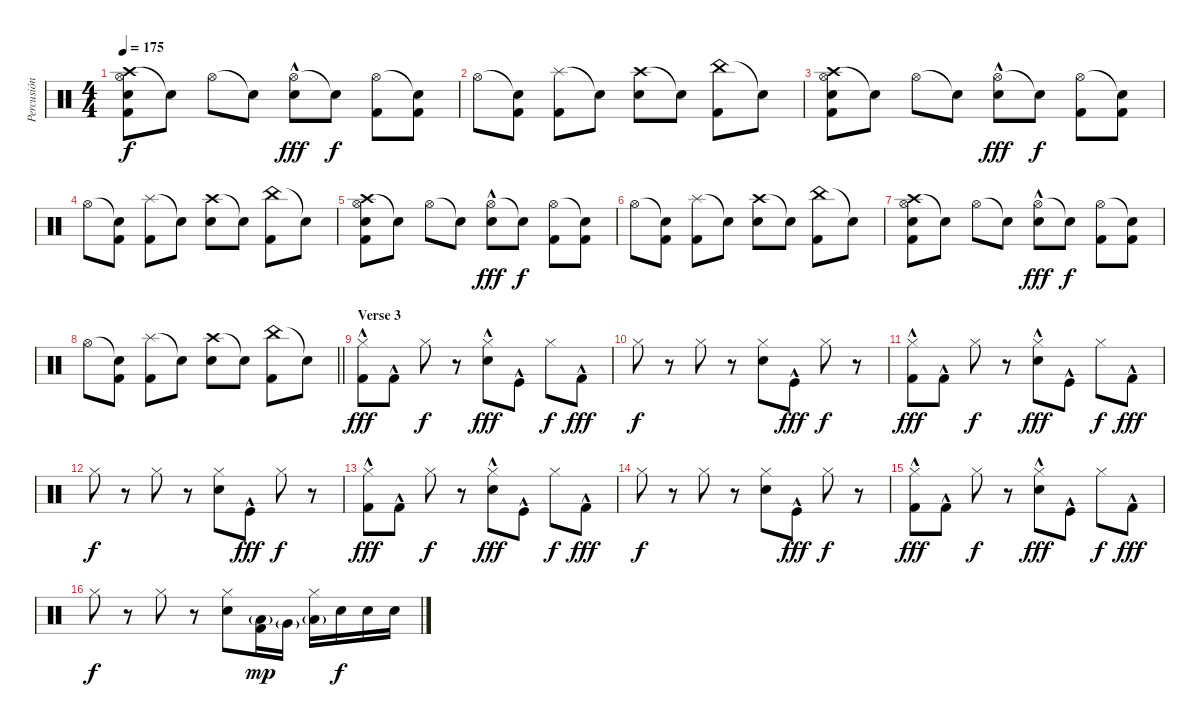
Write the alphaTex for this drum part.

\track ("Percusión" "Percusión") {instrument percussion}
\staff {score}
\articulation defaults
\ts (4 4)
\tempo 175
\clef neutral
\ks c
("Crash high (hit)" "Hi-Hat (open)" "Electric Snare (hit)" "Kick (hit) 2").8{dy f} "Snare (hit)"{t}.8 "Hi-Hat (open)".8 "Snare (hit)"{t}.8 ("Hi-Hat (open)" "Electric Snare (hit)"{hac}).8{dy fff} "Snare (hit)"{t}.8{dy f} ("Hi-Hat (open)" "Kick (hit) 2").8 ("Snare (hit)"{t} "Kick (hit) 2").8 |
"Hi-Hat (open)".8 ("Snare (hit)"{t} "Kick (hit) 2").8 ("Splash (hit)" "Kick (hit) 2").8 "Snare (hit)"{t}.8 ("Crash high (hit)" "Electric Snare (hit)").8 "Snare (hit)"{t}.8 ("China (hit)" "Kick (hit) 2").8 "Snare (hit)"{t}.8 |
("Crash high (hit)" "Hi-Hat (open)" "Electric Snare (hit)" "Kick (hit) 2").8 "Snare (hit)"{t}.8 "Hi-Hat (open)".8 "Snare (hit)"{t}.8 ("Hi-Hat (open)" "Electric Snare (hit)"{hac}).8{dy fff} "Snare (hit)"{t}.8{dy f} ("Hi-Hat (open)" "Kick (hit) 2").8 ("Snare (hit)"{t} "Kick (hit) 2").8 |
"Hi-Hat (open)".8 ("Snare (hit)"{t} "Kick (hit) 2").8 ("Splash (hit)" "Kick (hit) 2").8 "Snare (hit)"{t}.8 ("Crash high (hit)" "Electric Snare (hit)").8 "Snare (hit)"{t}.8 ("China (hit)" "Kick (hit) 2").8 "Snare (hit)"{t}.8 |
("Crash high (hit)" "Hi-Hat (open)" "Electric Snare (hit)" "Kick (hit) 2").8 "Snare (hit)"{t}.8 "Hi-Hat (open)".8 "Snare (hit)"{t}.8 ("Hi-Hat (open)" "Electric Snare (hit)"{hac}).8{dy fff} "Snare (hit)"{t}.8{dy f} ("Hi-Hat (open)" "Kick (hit) 2").8 ("Snare (hit)"{t} "Kick (hit) 2").8 |
"Hi-Hat (open)".8 ("Snare (hit)"{t} "Kick (hit) 2").8 ("Splash (hit)" "Kick (hit) 2").8 "Snare (hit)"{t}.8 ("Crash high (hit)" "Electric Snare (hit)").8 "Snare (hit)"{t}.8 ("China (hit)" "Kick (hit) 2").8 "Snare (hit)"{t}.8 |
("Crash high (hit)" "Hi-Hat (open)" "Electric Snare (hit)" "Kick (hit) 2").8 "Snare (hit)"{t}.8 "Hi-Hat (open)".8 "Snare (hit)"{t}.8 ("Hi-Hat (open)" "Electric Snare (hit)"{hac}).8{dy fff} "Snare (hit)"{t}.8{dy f} ("Hi-Hat (open)" "Kick (hit) 2").8 ("Snare (hit)"{t} "Kick (hit) 2").8 |
\barLineRight lightlight "Hi-Hat (open)".8
("Snare (hit)"{t} "Kick (hit) 2").8 ("Splash (hit)" "Kick (hit) 2").8 "Snare (hit)"{t}.8 ("Crash high (hit)" "Electric Snare (hit)").8 "Snare (hit)"{t}.8 ("China (hit)" "Kick (hit) 2").8 "Snare (hit)"{t}.8 |
\section ("" "Verse 3")
("Hi-Hat (closed)" "Kick (hit) 2"{hac}).8{dy fff} "Kick (hit) 2"{hac}.8 "Hi-Hat (closed)".8{dy f} r.8 ("Hi-Hat (closed)" "Electric Snare (hit)"{hac}).8{dy fff} "Kick (hit)"{hac}.8 "Hi-Hat (closed)".8{dy f} "Kick (hit) 2"{hac}.8{dy fff} |
"Hi-Hat (closed)".8{dy f} r.8 "Hi-Hat (closed)".8 r.8 ("Hi-Hat (closed)" "Electric Snare (hit)").8 "Kick (hit)"{hac}.8{dy fff} "Hi-Hat (closed)".8{dy f} r.8 |
("Hi-Hat (closed)" "Kick (hit) 2"{hac}).8{dy fff} "Kick (hit) 2"{hac}.8 "Hi-Hat (closed)".8{dy f} r.8 ("Hi-Hat (closed)" "Electric Snare (hit)"{hac}).8{dy fff} "Kick (hit)"{hac}.8 "Hi-Hat (closed)".8{dy f} "Kick (hit) 2"{hac}.8{dy fff} |
"Hi-Hat (closed)".8{dy f} r.8 "Hi-Hat (closed)".8 r.8 ("Hi-Hat (closed)" "Electric Snare (hit)").8 "Kick (hit)"{hac}.8{dy fff} "Hi-Hat (closed)".8{dy f} r.8 |
("Hi-Hat (closed)" "Kick (hit) 2"{hac}).8{dy fff} "Kick (hit) 2"{hac}.8 "Hi-Hat (closed)".8{dy f} r.8 ("Hi-Hat (closed)" "Electric Snare (hit)"{hac}).8{dy fff} "Kick (hit)"{hac}.8 "Hi-Hat (closed)".8{dy f} "Kick (hit) 2"{hac}.8{dy fff} |
"Hi-Hat (closed)".8{dy f} r.8 "Hi-Hat (closed)".8 r.8 ("Hi-Hat (closed)" "Electric Snare (hit)").8 "Kick (hit)"{hac}.8{dy fff} "Hi-Hat (closed)".8{dy f} r.8 |
("Hi-Hat (closed)" "Kick (hit) 2"{hac}).8{dy fff} "Kick (hit) 2"{hac}.8 "Hi-Hat (closed)".8{dy f} r.8 ("Hi-Hat (closed)" "Electric Snare (hit)"{hac}).8{dy fff} "Kick (hit)"{hac}.8 "Hi-Hat (closed)".8{dy f} "Kick (hit) 2"{hac}.8{dy fff} |
"Hi-Hat (closed)".8{dy f} r.8 "Hi-Hat (closed)".8 r.8 ("Hi-Hat (closed)" "Electric Snare (hit)").8 ("Low Floor Tom (hit)"{g} "Kick (hit) 2").16{dy mp} "Very Low Tom (hit)"{g}.16 ("Hi-Hat (closed)" "Low Floor Tom (hit)"{g}).16 "Electric Snare (hit)".16{dy f} "Electric Snare (hit)".16 "Electric Snare (hit)".16
